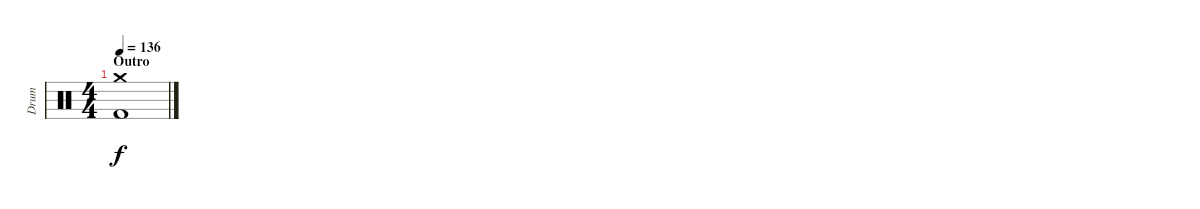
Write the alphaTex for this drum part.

\track ("Drum" "Drum") {instrument percussion}
\staff {score}
\articulation defaults
\ts (4 4)
\section ("" "Outro")
\tempo 136
\clef neutral
\ks c
("Crash medium (hit)" "Kick (hit) 2").1{dy f}
